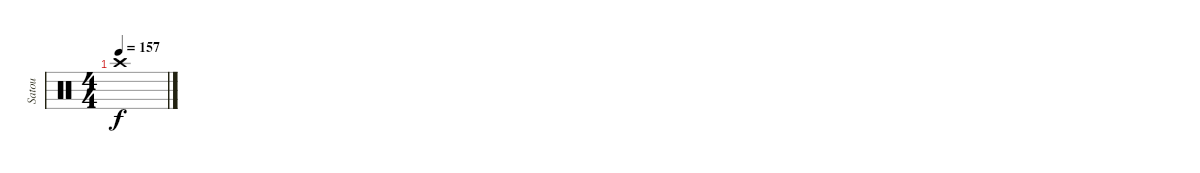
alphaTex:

\track ("Satou" "Satou") {instrument percussion}
\staff {score}
\articulation defaults
\ts (4 4)
\tempo 157
\clef neutral
\ks c "Crash high (hit)".1{dy f}
